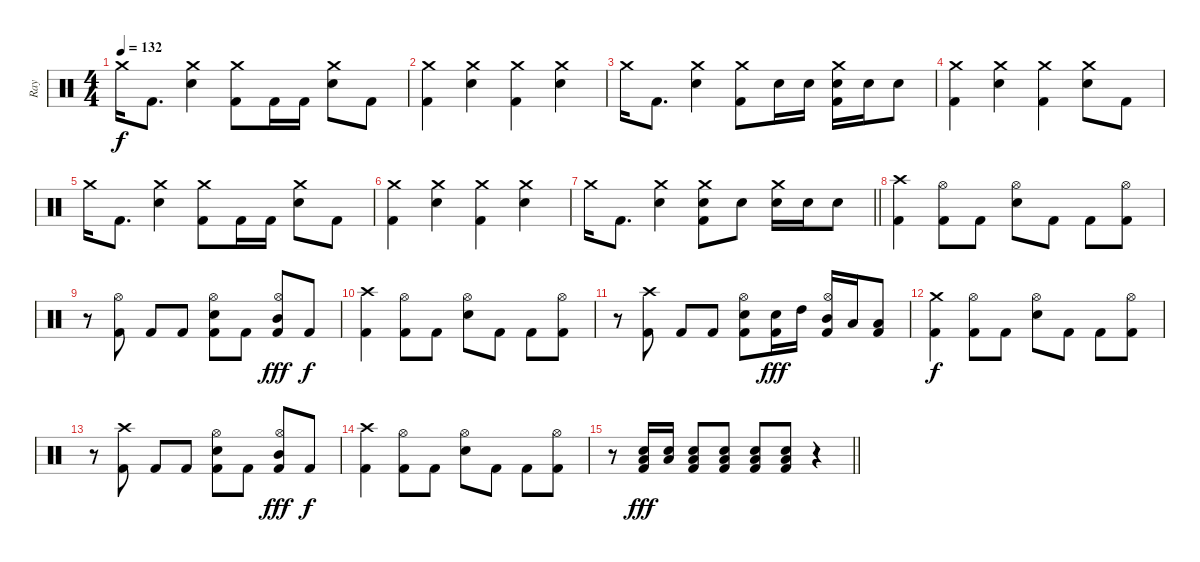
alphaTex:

\track ("Ray" "Ray") {instrument percussion}
\staff {score}
\articulation defaults
\ts (4 4)
\tempo 132
\clef neutral
\ks c "Crash medium (hit)".16{dy f} "Kick (hit) 2".8{d}
("Crash medium (hit)" "Snare (hit) 2").4 ("Crash medium (hit)" "Kick (hit) 2").8 "Kick (hit) 2".16 "Kick (hit) 2".16 ("Crash medium (hit)" "Snare (hit) 2").8 "Kick (hit) 2".8 |
("Crash medium (hit)" "Kick (hit) 2").4 ("Crash medium (hit)" "Snare (hit) 2").4 ("Crash medium (hit)" "Kick (hit) 2").4 ("Crash medium (hit)" "Snare (hit) 2").4 |
"Crash medium (hit)".16 "Kick (hit) 2".8{d} ("Crash medium (hit)" "Snare (hit) 2").4 ("Crash medium (hit)" "Kick (hit) 2").8 "Snare (hit) 2".16 "Snare (hit) 2".16 ("Crash medium (hit)" "Snare (hit) 2" "Kick (hit) 2").16 "Snare (hit) 2".16 "Snare (hit) 2".8 |
("Crash medium (hit)" "Kick (hit) 2").4 ("Crash medium (hit)" "Snare (hit) 2").4 ("Crash medium (hit)" "Kick (hit) 2").4 ("Crash medium (hit)" "Snare (hit) 2").8 "Kick (hit) 2".8 |
"Crash medium (hit)".16 "Kick (hit) 2".8{d} ("Crash medium (hit)" "Snare (hit) 2").4 ("Crash medium (hit)" "Kick (hit) 2").8 "Kick (hit) 2".16 "Kick (hit) 2".16 ("Crash medium (hit)" "Snare (hit) 2").8 "Kick (hit) 2".8 |
("Crash medium (hit)" "Kick (hit) 2").4 ("Crash medium (hit)" "Snare (hit) 2").4 ("Crash medium (hit)" "Kick (hit) 2").4 ("Crash medium (hit)" "Snare (hit) 2").4 |
\barLineRight lightlight "Crash medium (hit)".16 "Kick (hit) 2".8{d}
("Crash medium (hit)" "Snare (hit) 2").4 ("Crash medium (hit)" "Snare (hit) 2" "Kick (hit) 2").8 "Snare (hit) 2".8 ("Crash medium (hit)" "Snare (hit) 2").16 "Snare (hit) 2".16 "Snare (hit) 2".8 |
("Crash high (hit)" "Kick (hit) 2").4 ("Hi-Hat (open)" "Kick (hit) 2").8 "Kick (hit) 2".8 ("Hi-Hat (open)" "Snare (hit) 2").8 "Kick (hit) 2".8 "Kick (hit) 2".8 ("Hi-Hat (open)" "Kick (hit) 2").8 |
r.8 ("Hi-Hat (open)" "Kick (hit) 2").8 "Kick (hit) 2".8 "Kick (hit) 2".8 ("Hi-Hat (open)" "Snare (hit) 2" "Kick (hit) 2").8 "Kick (hit) 2".8 ("Hi-Hat (open)" "Mid Tom (hit)" "Kick (hit) 2").8{dy fff} "Kick (hit) 2".8{dy f} |
("Crash high (hit)" "Kick (hit) 2").4 ("Hi-Hat (open)" "Kick (hit) 2").8 "Kick (hit) 2".8 ("Hi-Hat (open)" "Snare (hit) 2").8 "Kick (hit) 2".8 "Kick (hit) 2".8 ("Hi-Hat (open)" "Kick (hit) 2").8 |
r.8 ("Crash high (hit)" "Kick (hit) 2").8 "Kick (hit) 2".8 "Kick (hit) 2".8 ("Hi-Hat (open)" "Snare (hit) 2" "Kick (hit) 2").8 ("Snare (hit) 2" "Kick (hit) 2").16{dy fff} "High Tom (hit)".16 ("Hi-Hat (open)" "Mid Tom (hit)" "Kick (hit) 2").16 "Low Tom (hit)".16 ("Low Floor Tom (hit)" "Kick (hit) 2").8 |
("Crash medium (hit)" "Kick (hit) 2").4{dy f} ("Hi-Hat (open)" "Kick (hit) 2").8 "Kick (hit) 2".8 ("Hi-Hat (open)" "Snare (hit) 2").8 "Kick (hit) 2".8 "Kick (hit) 2".8 ("Hi-Hat (open)" "Kick (hit) 2").8 |
r.8 ("Crash high (hit)" "Kick (hit) 2").8 "Kick (hit) 2".8 "Kick (hit) 2".8 ("Hi-Hat (open)" "Snare (hit) 2" "Kick (hit) 2").8 "Kick (hit) 2".8 ("Hi-Hat (open)" "Mid Tom (hit)" "Kick (hit) 2").8{dy fff} "Kick (hit) 2".8{dy f} |
("Crash high (hit)" "Kick (hit) 2").4 ("Hi-Hat (open)" "Kick (hit) 2").8 "Kick (hit) 2".8 ("Hi-Hat (open)" "Snare (hit) 2").8 "Kick (hit) 2".8 "Kick (hit) 2".8 ("Hi-Hat (open)" "Kick (hit) 2").8 |
\barLineRight lightlight
r.8 ("Snare (hit) 2" "Low Floor Tom (hit)" "Kick (hit) 2").16{dy fff} ("Snare (hit) 2" "Low Floor Tom (hit)").16 ("Snare (hit) 2" "Low Floor Tom (hit)" "Kick (hit) 2").8 ("Snare (hit) 2" "Low Floor Tom (hit)" "Kick (hit) 2").8 ("Snare (hit) 2" "Low Floor Tom (hit)" "Kick (hit) 2").8 ("Snare (hit) 2" "Low Floor Tom (hit)" "Kick (hit) 2").8 r.4
